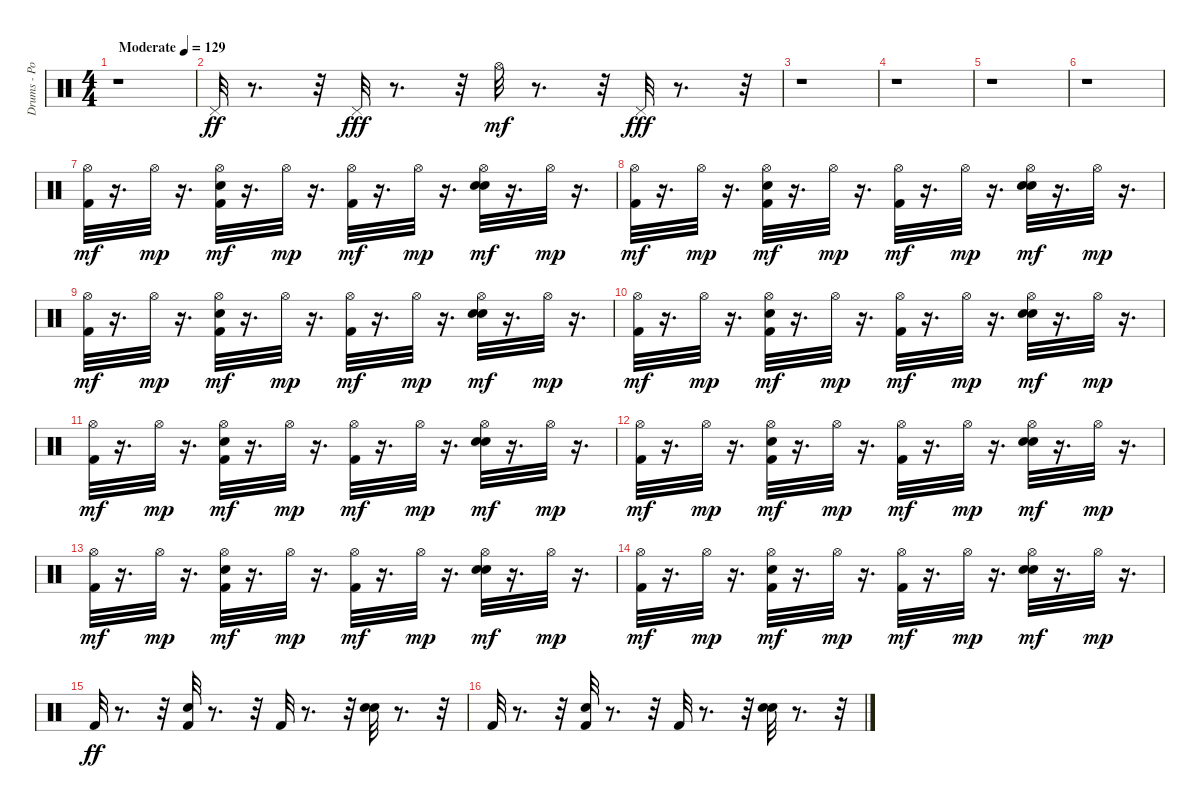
\track ("Drums - Po" "Drums - Po") {instrument percussion}
\staff {score}
\articulation defaults
\ts (4 4)
\tempo (129 "Moderate")
\clef neutral
\ks c
r.1{dy ff} |
"Pedal Hi-Hat (hit)".32 r.8{d} r.32 "Pedal Hi-Hat (hit)".32{dy fff} r.8{d} r.32 "Hi-Hat (open)".32{dy mf} r.8{d} r.32 "Pedal Hi-Hat (hit)".32{dy fff} r.8{d} r.32 |
r.1 |
r.1 |
r.1 |
r.1 |
("Kick (hit) 2" "Hi-Hat (open)").32{dy mf} r.16{d} "Hi-Hat (open)".32{dy mp} r.16{d} ("Kick (hit) 2" "Snare (hit) 2" "Hi-Hat (open)").32{dy mf} r.16{d} "Hi-Hat (open)".32{dy mp} r.16{d} ("Kick (hit) 2" "Hi-Hat (open)").32{dy mf} r.16{d} "Hi-Hat (open)".32{dy mp} r.16{d} ("Snare (hit) 2" "Hand Clap (hit)" "Hi-Hat (open)").32{dy mf} r.16{d} "Hi-Hat (open)".32{dy mp} r.16{d} |
("Kick (hit) 2" "Hi-Hat (open)").32{dy mf} r.16{d} "Hi-Hat (open)".32{dy mp} r.16{d} ("Kick (hit) 2" "Snare (hit) 2" "Hi-Hat (open)").32{dy mf} r.16{d} "Hi-Hat (open)".32{dy mp} r.16{d} ("Kick (hit) 2" "Hi-Hat (open)").32{dy mf} r.16{d} "Hi-Hat (open)".32{dy mp} r.16{d} ("Snare (hit) 2" "Hand Clap (hit)" "Hi-Hat (open)").32{dy mf} r.16{d} "Hi-Hat (open)".32{dy mp} r.16{d} |
("Kick (hit) 2" "Hi-Hat (open)").32{dy mf} r.16{d} "Hi-Hat (open)".32{dy mp} r.16{d} ("Kick (hit) 2" "Snare (hit) 2" "Hi-Hat (open)").32{dy mf} r.16{d} "Hi-Hat (open)".32{dy mp} r.16{d} ("Kick (hit) 2" "Hi-Hat (open)").32{dy mf} r.16{d} "Hi-Hat (open)".32{dy mp} r.16{d} ("Snare (hit) 2" "Hand Clap (hit)" "Hi-Hat (open)").32{dy mf} r.16{d} "Hi-Hat (open)".32{dy mp} r.16{d} |
("Kick (hit) 2" "Hi-Hat (open)").32{dy mf} r.16{d} "Hi-Hat (open)".32{dy mp} r.16{d} ("Kick (hit) 2" "Snare (hit) 2" "Hi-Hat (open)").32{dy mf} r.16{d} "Hi-Hat (open)".32{dy mp} r.16{d} ("Kick (hit) 2" "Hi-Hat (open)").32{dy mf} r.16{d} "Hi-Hat (open)".32{dy mp} r.16{d} ("Snare (hit) 2" "Hand Clap (hit)" "Hi-Hat (open)").32{dy mf} r.16{d} "Hi-Hat (open)".32{dy mp} r.16{d} |
("Kick (hit) 2" "Hi-Hat (open)").32{dy mf} r.16{d} "Hi-Hat (open)".32{dy mp} r.16{d} ("Kick (hit) 2" "Snare (hit) 2" "Hi-Hat (open)").32{dy mf} r.16{d} "Hi-Hat (open)".32{dy mp} r.16{d} ("Kick (hit) 2" "Hi-Hat (open)").32{dy mf} r.16{d} "Hi-Hat (open)".32{dy mp} r.16{d} ("Snare (hit) 2" "Hand Clap (hit)" "Hi-Hat (open)").32{dy mf} r.16{d} "Hi-Hat (open)".32{dy mp} r.16{d} |
("Kick (hit) 2" "Hi-Hat (open)").32{dy mf} r.16{d} "Hi-Hat (open)".32{dy mp} r.16{d} ("Kick (hit) 2" "Snare (hit) 2" "Hi-Hat (open)").32{dy mf} r.16{d} "Hi-Hat (open)".32{dy mp} r.16{d} ("Kick (hit) 2" "Hi-Hat (open)").32{dy mf} r.16{d} "Hi-Hat (open)".32{dy mp} r.16{d} ("Snare (hit) 2" "Hand Clap (hit)" "Hi-Hat (open)").32{dy mf} r.16{d} "Hi-Hat (open)".32{dy mp} r.16{d} |
("Kick (hit) 2" "Hi-Hat (open)").32{dy mf} r.16{d} "Hi-Hat (open)".32{dy mp} r.16{d} ("Kick (hit) 2" "Snare (hit) 2" "Hi-Hat (open)").32{dy mf} r.16{d} "Hi-Hat (open)".32{dy mp} r.16{d} ("Kick (hit) 2" "Hi-Hat (open)").32{dy mf} r.16{d} "Hi-Hat (open)".32{dy mp} r.16{d} ("Snare (hit) 2" "Hand Clap (hit)" "Hi-Hat (open)").32{dy mf} r.16{d} "Hi-Hat (open)".32{dy mp} r.16{d} |
("Kick (hit) 2" "Hi-Hat (open)").32{dy mf} r.16{d} "Hi-Hat (open)".32{dy mp} r.16{d} ("Kick (hit) 2" "Snare (hit) 2" "Hi-Hat (open)").32{dy mf} r.16{d} "Hi-Hat (open)".32{dy mp} r.16{d} ("Kick (hit) 2" "Hi-Hat (open)").32{dy mf} r.16{d} "Hi-Hat (open)".32{dy mp} r.16{d} ("Snare (hit) 2" "Hand Clap (hit)" "Hi-Hat (open)").32{dy mf} r.16{d} "Hi-Hat (open)".32{dy mp} r.16{d} |
"Kick (hit) 2".32{dy ff} r.8{d} r.32 ("Kick (hit) 2" "Snare (hit) 2").32 r.8{d} r.32 "Kick (hit) 2".32 r.8{d} r.32 ("Snare (hit) 2" "Hand Clap (hit)").32 r.8{d} r.32 |
"Kick (hit) 2".32 r.8{d} r.32 ("Kick (hit) 2" "Snare (hit) 2").32 r.8{d} r.32 "Kick (hit) 2".32 r.8{d} r.32 ("Snare (hit) 2" "Hand Clap (hit)").32 r.8{d} r.32
